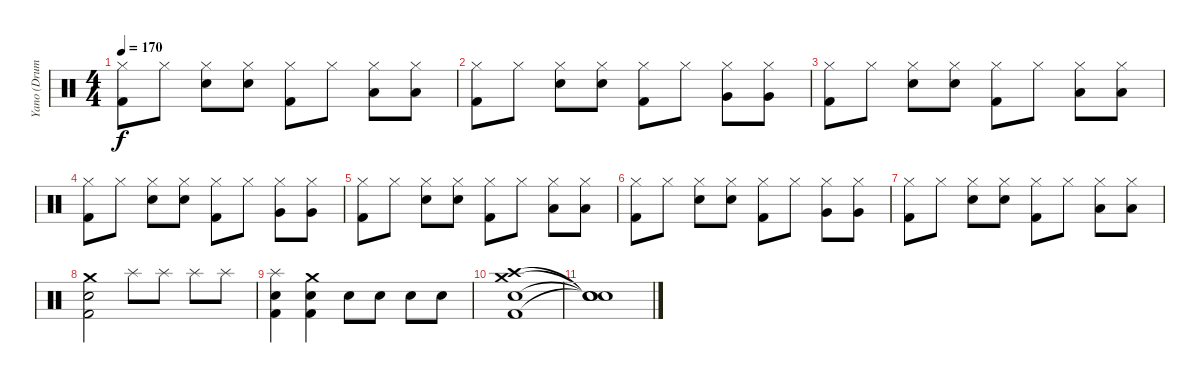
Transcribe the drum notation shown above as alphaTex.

\track ("Yano (Drums)" "Yano (Drum") {instrument percussion}
\staff {score}
\articulation defaults
\ts (4 4)
\tempo 170
\clef neutral
\ks c
("Hi-Hat (closed)" "Kick (hit) 2").8{dy f} "Hi-Hat (closed)".8 ("Hi-Hat (closed)" "Electric Snare (hit)").8 ("Hi-Hat (closed)" "Electric Snare (hit)").8 ("Hi-Hat (closed)" "Kick (hit) 2").8 "Hi-Hat (closed)".8 ("Hi-Hat (closed)" "Low Tom (hit)").8 ("Hi-Hat (closed)" "Low Tom (hit)").8 |
("Hi-Hat (closed)" "Kick (hit) 2").8 "Hi-Hat (closed)".8 ("Hi-Hat (closed)" "Electric Snare (hit)").8 ("Hi-Hat (closed)" "Electric Snare (hit)").8 ("Hi-Hat (closed)" "Kick (hit) 2").8 "Hi-Hat (closed)".8 ("Hi-Hat (closed)" "Very Low Tom (hit)").8 ("Hi-Hat (closed)" "Very Low Tom (hit)").8 |
("Hi-Hat (closed)" "Kick (hit) 2").8 "Hi-Hat (closed)".8 ("Hi-Hat (closed)" "Electric Snare (hit)").8 ("Hi-Hat (closed)" "Electric Snare (hit)").8 ("Hi-Hat (closed)" "Kick (hit) 2").8 "Hi-Hat (closed)".8 ("Hi-Hat (closed)" "Low Tom (hit)").8 ("Hi-Hat (closed)" "Low Tom (hit)").8 |
("Hi-Hat (closed)" "Kick (hit) 2").8 "Hi-Hat (closed)".8 ("Hi-Hat (closed)" "Electric Snare (hit)").8 ("Hi-Hat (closed)" "Electric Snare (hit)").8 ("Hi-Hat (closed)" "Kick (hit) 2").8 "Hi-Hat (closed)".8 ("Hi-Hat (closed)" "Very Low Tom (hit)").8 ("Hi-Hat (closed)" "Very Low Tom (hit)").8 |
("Hi-Hat (closed)" "Kick (hit) 2").8 "Hi-Hat (closed)".8 ("Hi-Hat (closed)" "Electric Snare (hit)").8 ("Hi-Hat (closed)" "Electric Snare (hit)").8 ("Hi-Hat (closed)" "Kick (hit) 2").8 "Hi-Hat (closed)".8 ("Hi-Hat (closed)" "Low Tom (hit)").8 ("Hi-Hat (closed)" "Low Tom (hit)").8 |
("Hi-Hat (closed)" "Kick (hit) 2").8 "Hi-Hat (closed)".8 ("Hi-Hat (closed)" "Electric Snare (hit)").8 ("Hi-Hat (closed)" "Electric Snare (hit)").8 ("Hi-Hat (closed)" "Kick (hit) 2").8 "Hi-Hat (closed)".8 ("Hi-Hat (closed)" "Very Low Tom (hit)").8 ("Hi-Hat (closed)" "Very Low Tom (hit)").8 |
("Hi-Hat (closed)" "Kick (hit) 2").8 "Hi-Hat (closed)".8 ("Hi-Hat (closed)" "Electric Snare (hit)").8 ("Hi-Hat (closed)" "Electric Snare (hit)").8 ("Hi-Hat (closed)" "Kick (hit) 2").8 "Hi-Hat (closed)".8 ("Hi-Hat (closed)" "Low Tom (hit)").8 ("Hi-Hat (closed)" "Low Tom (hit)").8 |
("Crash medium (hit)" "Kick (hit) 2" "Electric Snare (hit)").2 "Splash (hit)".8 "Splash (hit)".8 "Splash (hit)".8 "Splash (hit)".8 |
("Splash (hit)" "Kick (hit) 2" "Electric Snare (hit)").4 ("Crash medium (hit)" "Electric Snare (hit)" "Kick (hit) 2").4 "Electric Snare (hit)".8 "Electric Snare (hit)".8 "Electric Snare (hit)".8 "Electric Snare (hit)".8 |
("Crash medium (hit)" "Crash high (hit)" "Electric Snare (hit)" "Kick (hit) 2").1 |
("Snare (hit)"{t} "Snare (hit)"{t} "Snare (hit)"{t} "Snare (hit)"{t}).1
